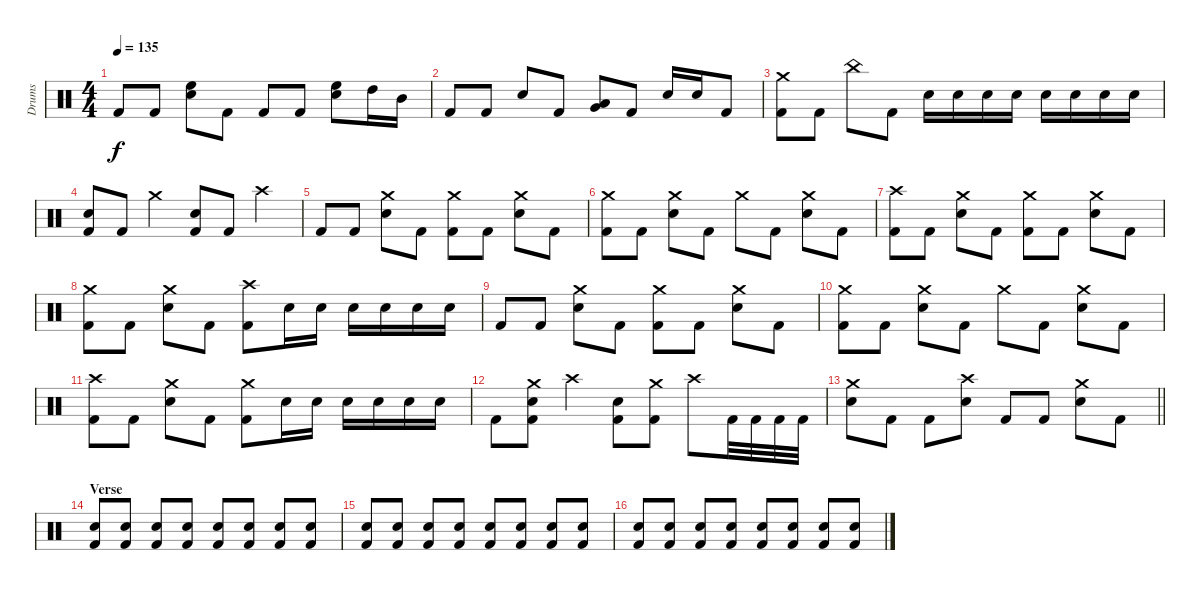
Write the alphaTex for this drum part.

\track ("Drums" "Drums") {instrument percussion}
\staff {score}
\articulation defaults
\ts (4 4)
\tempo 135
\clef neutral
\ks c "Kick (hit) 2".8{dy f} "Kick (hit) 2".8
("High Floor Tom (hit)" "Electric Snare (hit)").8 "Kick (hit) 2".8 "Kick (hit) 2".8 "Kick (hit) 2".8 ("High Floor Tom (hit)" "Electric Snare (hit)").8 "High Tom (hit)".16 "Mid Tom (hit)".16 |
"Kick (hit) 2".8 "Kick (hit) 2".8 "Electric Snare (hit)".8 "Kick (hit) 2".8 ("Low Tom (hit)" "Very Low Tom (hit)").8 "Kick (hit) 2".8 "Electric Snare (hit)".16 "Electric Snare (hit)".16 "Kick (hit) 2".8 |
("Crash medium (hit)" "Kick (hit) 2").8 "Kick (hit) 2".8 "China (hit)".8 "Kick (hit) 2".8 "Electric Snare (hit)".16 "Electric Snare (hit)".16 "Electric Snare (hit)".16 "Electric Snare (hit)".16 "Electric Snare (hit)".16 "Electric Snare (hit)".16 "Electric Snare (hit)".16 "Electric Snare (hit)".16 |
("Electric Snare (hit)" "Kick (hit) 2").8 "Kick (hit) 2".8 "Crash medium (hit)".4 ("Electric Snare (hit)" "Kick (hit) 2").8 "Kick (hit) 2".8 "Crash high (hit)".4 |
"Kick (hit) 2".8 "Kick (hit) 2".8 ("Crash medium (hit)" "Electric Snare (hit)").8 "Kick (hit) 2".8 ("Crash medium (hit)" "Kick (hit) 2").8 "Kick (hit) 2".8 ("Crash medium (hit)" "Electric Snare (hit)").8 "Kick (hit) 2".8 |
("Crash medium (hit)" "Kick (hit) 2").8 "Kick (hit) 2".8 ("Crash medium (hit)" "Electric Snare (hit)").8 "Kick (hit) 2".8 "Crash medium (hit)".8 "Kick (hit) 2".8 ("Crash medium (hit)" "Electric Snare (hit)").8 "Kick (hit) 2".8 |
("Crash high (hit)" "Kick (hit) 2").8 "Kick (hit) 2".8 ("Crash medium (hit)" "Electric Snare (hit)").8 "Kick (hit) 2".8 ("Crash medium (hit)" "Kick (hit) 2").8 "Kick (hit) 2".8 ("Crash medium (hit)" "Electric Snare (hit)").8 "Kick (hit) 2".8 |
("Crash medium (hit)" "Kick (hit) 2").8 "Kick (hit) 2".8 ("Crash medium (hit)" "Electric Snare (hit)").8 "Kick (hit) 2".8 ("Crash high (hit)" "Kick (hit) 2").8 "Electric Snare (hit)".16 "Electric Snare (hit)".16 "Electric Snare (hit)".16 "Electric Snare (hit)".16 "Electric Snare (hit)".16 "Electric Snare (hit)".16 |
"Kick (hit) 2".8 "Kick (hit) 2".8 ("Crash medium (hit)" "Electric Snare (hit)").8 "Kick (hit) 2".8 ("Crash medium (hit)" "Kick (hit) 2").8 "Kick (hit) 2".8 ("Crash medium (hit)" "Electric Snare (hit)").8 "Kick (hit) 2".8 |
("Crash medium (hit)" "Kick (hit) 2").8 "Kick (hit) 2".8 ("Crash medium (hit)" "Electric Snare (hit)").8 "Kick (hit) 2".8 "Crash medium (hit)".8 "Kick (hit) 2".8 ("Crash medium (hit)" "Electric Snare (hit)").8 "Kick (hit) 2".8 |
("Crash high (hit)" "Kick (hit) 2").8 "Kick (hit) 2".8 ("Crash medium (hit)" "Electric Snare (hit)").8 "Kick (hit) 2".8 ("Crash medium (hit)" "Kick (hit) 2").8 "Electric Snare (hit)".16 "Electric Snare (hit)".16 "Electric Snare (hit)".16 "Electric Snare (hit)".16 "Electric Snare (hit)".16 "Electric Snare (hit)".16 |
"Kick (hit) 2".8 ("Crash medium (hit)" "Electric Snare (hit)" "Kick (hit) 2").8 "Crash high (hit)".4 ("Electric Snare (hit)" "Kick (hit) 2").8 ("Crash medium (hit)" "Kick (hit) 2").8 "Crash high (hit)".8 "Kick (hit) 2".32 "Kick (hit) 2".32 "Kick (hit) 2".32 "Kick (hit) 2".32 |
\barLineRight lightlight
("Crash medium (hit)" "Electric Snare (hit)").8 "Kick (hit) 2".8 "Kick (hit) 2".8 ("Crash high (hit)" "Electric Snare (hit)").8 "Kick (hit) 2".8 "Kick (hit) 2".8 ("Crash medium (hit)" "Electric Snare (hit)").8 "Kick (hit) 2".8 |
\section ("" "Verse")
("Electric Snare (hit)" "Kick (hit) 2").8 ("Electric Snare (hit)" "Kick (hit) 2").8 ("Electric Snare (hit)" "Kick (hit) 2").8 ("Electric Snare (hit)" "Kick (hit) 2").8 ("Electric Snare (hit)" "Kick (hit) 2").8 ("Electric Snare (hit)" "Kick (hit) 2").8 ("Electric Snare (hit)" "Kick (hit) 2").8 ("Electric Snare (hit)" "Kick (hit) 2").8 |
("Electric Snare (hit)" "Kick (hit) 2").8 ("Electric Snare (hit)" "Kick (hit) 2").8 ("Electric Snare (hit)" "Kick (hit) 2").8 ("Electric Snare (hit)" "Kick (hit) 2").8 ("Electric Snare (hit)" "Kick (hit) 2").8 ("Electric Snare (hit)" "Kick (hit) 2").8 ("Electric Snare (hit)" "Kick (hit) 2").8 ("Electric Snare (hit)" "Kick (hit) 2").8 |
("Electric Snare (hit)" "Kick (hit) 2").8 ("Electric Snare (hit)" "Kick (hit) 2").8 ("Electric Snare (hit)" "Kick (hit) 2").8 ("Electric Snare (hit)" "Kick (hit) 2").8 ("Electric Snare (hit)" "Kick (hit) 2").8 ("Electric Snare (hit)" "Kick (hit) 2").8 ("Electric Snare (hit)" "Kick (hit) 2").8 ("Electric Snare (hit)" "Kick (hit) 2").8
